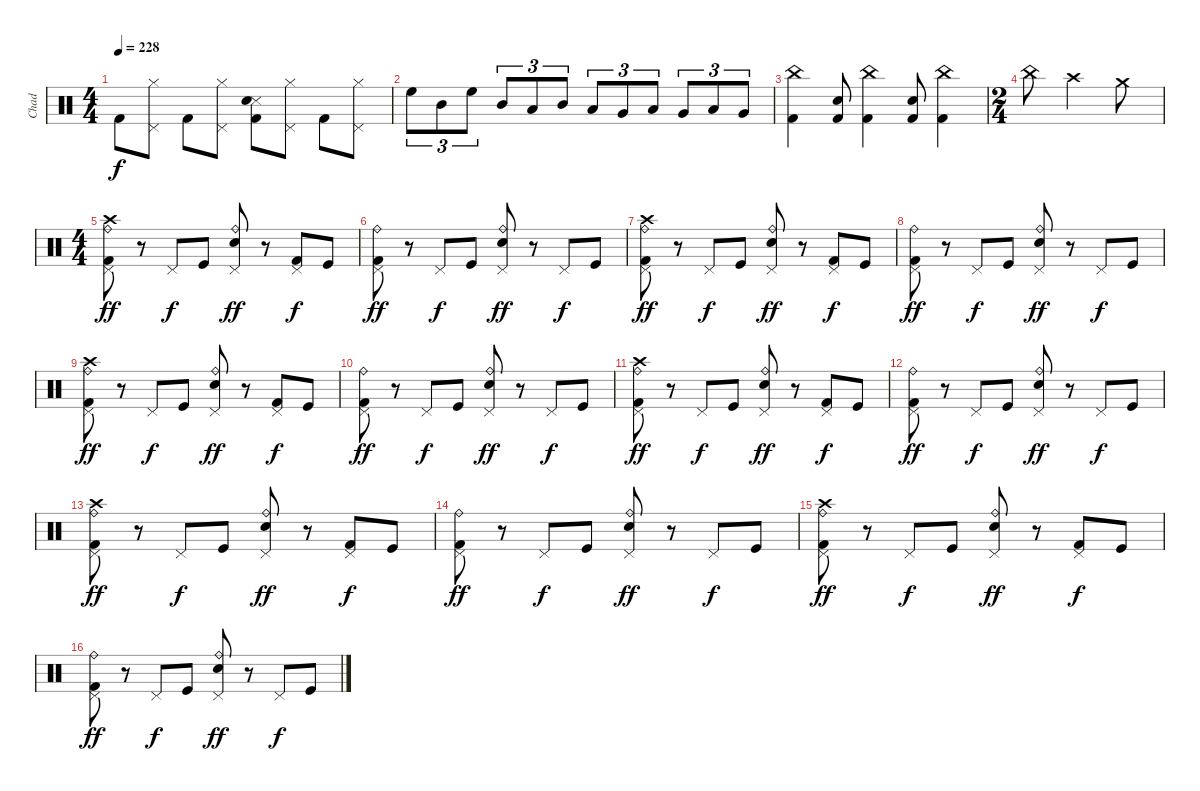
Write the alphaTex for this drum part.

\track ("Chad" "Chad") {instrument percussion}
\staff {score}
\articulation defaults
\ts (4 4)
\tempo 228
\clef neutral
\ks c "Kick (hit) 2".8{dy f}
("Hi-Hat (closed)" "Pedal Hi-Hat (hit)").8 "Kick (hit) 2".8 ("Hi-Hat (closed)" "Pedal Hi-Hat (hit)").8 ("Snare (side stick) 3" "Electric Snare (hit)" "Kick (hit) 2").8 ("Hi-Hat (closed)" "Pedal Hi-Hat (hit)").8 "Kick (hit) 2".8 ("Hi-Hat (closed)" "Pedal Hi-Hat (hit)").8 |
"High Floor Tom (hit)".8{tu (3 2)} "Mid Tom (hit)".8{tu (3 2)} "High Floor Tom (hit)".8{tu (3 2)} "Mid Tom (hit)".8{tu (3 2)} "Low Tom (hit)".8{tu (3 2)} "Mid Tom (hit)".8{tu (3 2)} "Low Tom (hit)".8{tu (3 2)} "Very Low Tom (hit)".8{tu (3 2)} "Low Tom (hit)".8{tu (3 2)} "Very Low Tom (hit)".8{tu (3 2)} "Low Floor Tom (hit)".8{tu (3 2)} "Very Low Tom (hit)".8{tu (3 2)} |
("China (hit)" "Kick (hit) 2").4 ("Electric Snare (hit)" "Kick (hit) 2").8 ("China (hit)" "Kick (hit) 2").4 ("Electric Snare (hit)" "Kick (hit) 2").8 ("China (hit)" "Kick (hit) 2").4 |
\ts (2 4)
"China (hit)".8 "Crash high (hit)".4 "Crash medium (hit)".8 |
\ts (4 4)
("Crash high (hit)" "Ride (bell)" "Kick (hit) 2" "Pedal Hi-Hat (hit)").8{dy ff} r.8 "Pedal Hi-Hat (hit)".8{dy f} "Kick (hit)".8 ("Ride (bell)" "Electric Snare (hit)" "Pedal Hi-Hat (hit)").8{dy ff} r.8 ("Kick (hit) 2" "Pedal Hi-Hat (hit)").8{dy f} "Kick (hit)".8 |
("Ride (bell)" "Kick (hit) 2" "Pedal Hi-Hat (hit)").8{dy ff} r.8 "Pedal Hi-Hat (hit)".8{dy f} "Kick (hit)".8 ("Ride (bell)" "Electric Snare (hit)" "Pedal Hi-Hat (hit)").8{dy ff} r.8 "Pedal Hi-Hat (hit)".8{dy f} "Kick (hit)".8 |
("Crash high (hit)" "Ride (bell)" "Kick (hit) 2" "Pedal Hi-Hat (hit)").8{dy ff} r.8 "Pedal Hi-Hat (hit)".8{dy f} "Kick (hit)".8 ("Ride (bell)" "Electric Snare (hit)" "Pedal Hi-Hat (hit)").8{dy ff} r.8 ("Kick (hit) 2" "Pedal Hi-Hat (hit)").8{dy f} "Kick (hit)".8 |
("Ride (bell)" "Kick (hit) 2" "Pedal Hi-Hat (hit)").8{dy ff} r.8 "Pedal Hi-Hat (hit)".8{dy f} "Kick (hit)".8 ("Ride (bell)" "Electric Snare (hit)" "Pedal Hi-Hat (hit)").8{dy ff} r.8 "Pedal Hi-Hat (hit)".8{dy f} "Kick (hit)".8 |
("Crash high (hit)" "Ride (bell)" "Kick (hit) 2" "Pedal Hi-Hat (hit)").8{dy ff} r.8 "Pedal Hi-Hat (hit)".8{dy f} "Kick (hit)".8 ("Ride (bell)" "Electric Snare (hit)" "Pedal Hi-Hat (hit)").8{dy ff} r.8 ("Kick (hit) 2" "Pedal Hi-Hat (hit)").8{dy f} "Kick (hit)".8 |
("Ride (bell)" "Kick (hit) 2" "Pedal Hi-Hat (hit)").8{dy ff} r.8 "Pedal Hi-Hat (hit)".8{dy f} "Kick (hit)".8 ("Ride (bell)" "Electric Snare (hit)" "Pedal Hi-Hat (hit)").8{dy ff} r.8 "Pedal Hi-Hat (hit)".8{dy f} "Kick (hit)".8 |
("Crash high (hit)" "Ride (bell)" "Kick (hit) 2" "Pedal Hi-Hat (hit)").8{dy ff} r.8 "Pedal Hi-Hat (hit)".8{dy f} "Kick (hit)".8 ("Ride (bell)" "Electric Snare (hit)" "Pedal Hi-Hat (hit)").8{dy ff} r.8 ("Kick (hit) 2" "Pedal Hi-Hat (hit)").8{dy f} "Kick (hit)".8 |
("Ride (bell)" "Kick (hit) 2" "Pedal Hi-Hat (hit)").8{dy ff} r.8 "Pedal Hi-Hat (hit)".8{dy f} "Kick (hit)".8 ("Ride (bell)" "Electric Snare (hit)" "Pedal Hi-Hat (hit)").8{dy ff} r.8 "Pedal Hi-Hat (hit)".8{dy f} "Kick (hit)".8 |
("Crash high (hit)" "Ride (bell)" "Kick (hit) 2" "Pedal Hi-Hat (hit)").8{dy ff} r.8 "Pedal Hi-Hat (hit)".8{dy f} "Kick (hit)".8 ("Ride (bell)" "Electric Snare (hit)" "Pedal Hi-Hat (hit)").8{dy ff} r.8 ("Kick (hit) 2" "Pedal Hi-Hat (hit)").8{dy f} "Kick (hit)".8 |
("Ride (bell)" "Kick (hit) 2" "Pedal Hi-Hat (hit)").8{dy ff} r.8 "Pedal Hi-Hat (hit)".8{dy f} "Kick (hit)".8 ("Ride (bell)" "Electric Snare (hit)" "Pedal Hi-Hat (hit)").8{dy ff} r.8 "Pedal Hi-Hat (hit)".8{dy f} "Kick (hit)".8 |
("Crash high (hit)" "Ride (bell)" "Kick (hit) 2" "Pedal Hi-Hat (hit)").8{dy ff} r.8 "Pedal Hi-Hat (hit)".8{dy f} "Kick (hit)".8 ("Ride (bell)" "Electric Snare (hit)" "Pedal Hi-Hat (hit)").8{dy ff} r.8 ("Kick (hit) 2" "Pedal Hi-Hat (hit)").8{dy f} "Kick (hit)".8 |
("Ride (bell)" "Kick (hit) 2" "Pedal Hi-Hat (hit)").8{dy ff} r.8 "Pedal Hi-Hat (hit)".8{dy f} "Kick (hit)".8 ("Ride (bell)" "Electric Snare (hit)" "Pedal Hi-Hat (hit)").8{dy ff} r.8 "Pedal Hi-Hat (hit)".8{dy f} "Kick (hit)".8
